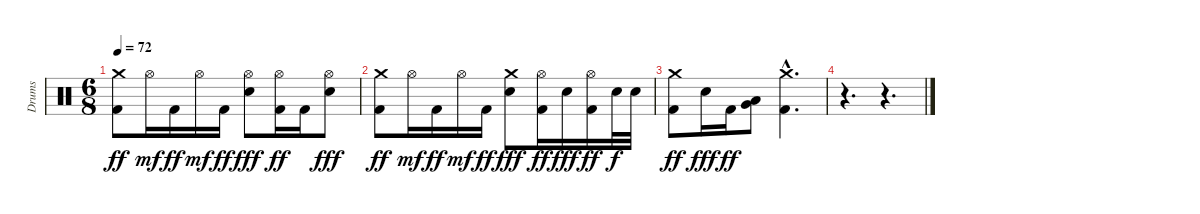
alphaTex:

\track ("Drums" "Drums") {instrument percussion}
\staff {score}
\articulation defaults
\ts (6 8)
\tempo 72
\clef neutral
\ks c
("Crash medium (hit)" "Kick (hit) 2").8{dy ff} "Hi-Hat (open)".16{dy mf} "Kick (hit) 2".16{dy ff} "Hi-Hat (open)".16{dy mf} "Kick (hit) 2".16{dy ff} ("Hi-Hat (open)" "Snare (hit) 2").8{dy fff} ("Hi-Hat (open)" "Kick (hit) 2").16{dy ff} "Kick (hit) 2".16 ("Hi-Hat (open)" "Snare (hit) 2").8{dy fff} |
("Crash medium (hit)" "Kick (hit) 2").8{dy ff} "Hi-Hat (open)".16{dy mf} "Kick (hit) 2".16{dy ff} "Hi-Hat (open)".16{dy mf} "Kick (hit) 2".16{dy ff} ("Crash medium (hit)" "Snare (hit) 2").8{dy fff} ("Hi-Hat (open)" "Kick (hit) 2").16{dy ff} "Snare (hit) 2".16{dy fff} ("Hi-Hat (open)" "Kick (hit) 2").16{dy ff} "Snare (hit) 2".32{dy f} "Snare (hit) 2".32 |
("Crash medium (hit)" "Kick (hit) 2").8{dy ff} "Snare (hit) 2".16{dy fff} "Kick (hit) 2".16{dy ff} ("Low Tom (hit)" "Very Low Tom (hit)").8 ("Crash medium (hit)"{hac} "Kick (hit) 2"{hac}).4{d} |
r.4{d} r.4{d}
